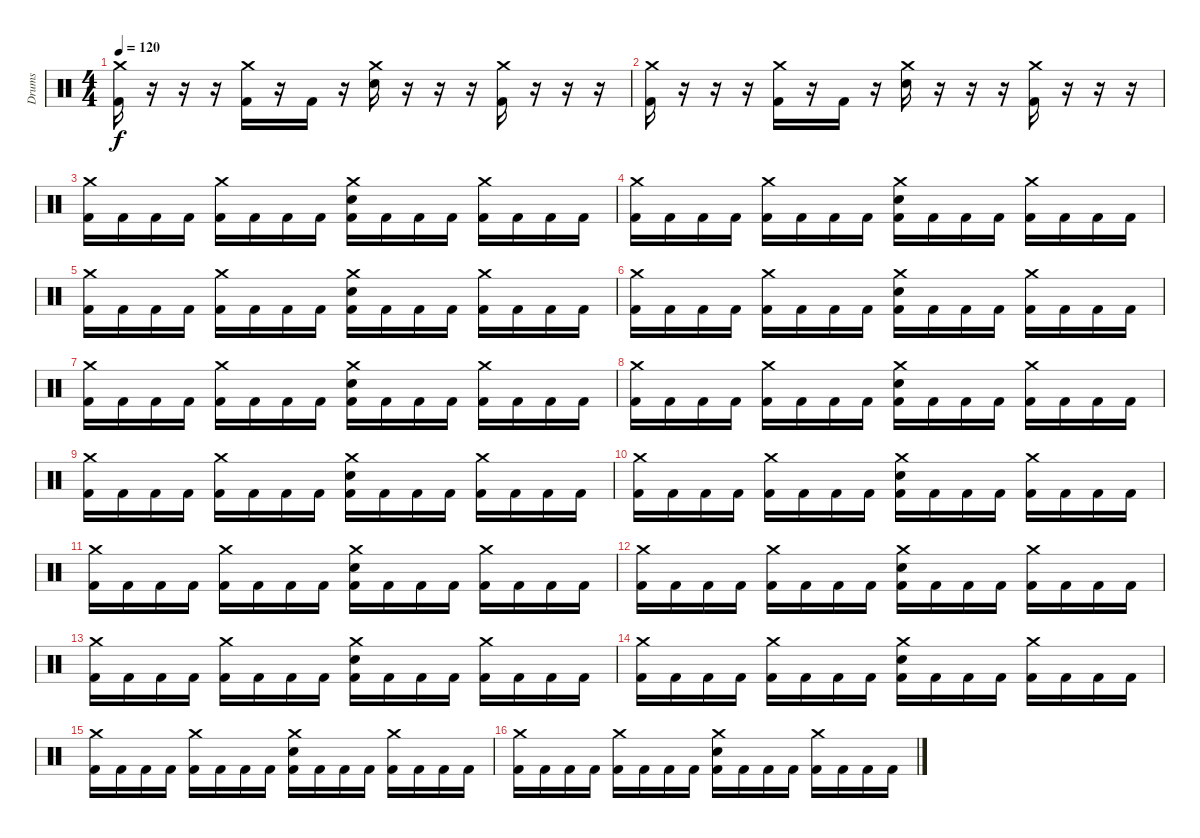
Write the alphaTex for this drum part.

\track ("Drums" "Drums") {instrument percussion}
\staff {score}
\articulation defaults
\ts (4 4)
\tempo 120
\clef neutral
\ks c
("Crash medium (hit)" "Kick (hit) 2").16{dy f} r.16 r.16 r.16 ("Crash medium (hit)" "Kick (hit) 2").16 r.16 "Kick (hit) 2".16 r.16 ("Crash medium (hit)" "Electric Snare (hit)").16 r.16 r.16 r.16 ("Crash medium (hit)" "Kick (hit) 2").16 r.16 r.16 r.16 |
("Crash medium (hit)" "Kick (hit) 2").16 r.16 r.16 r.16 ("Crash medium (hit)" "Kick (hit) 2").16 r.16 "Kick (hit) 2".16 r.16 ("Crash medium (hit)" "Electric Snare (hit)").16 r.16 r.16 r.16 ("Crash medium (hit)" "Kick (hit) 2").16 r.16 r.16 r.16 |
("Crash medium (hit)" "Kick (hit) 2").16 "Kick (hit) 2".16 "Kick (hit) 2".16 "Kick (hit) 2".16 ("Crash medium (hit)" "Kick (hit) 2").16 "Kick (hit) 2".16 "Kick (hit) 2".16 "Kick (hit) 2".16 ("Crash medium (hit)" "Electric Snare (hit)" "Kick (hit) 2").16 "Kick (hit) 2".16 "Kick (hit) 2".16 "Kick (hit) 2".16 ("Crash medium (hit)" "Kick (hit) 2").16 "Kick (hit) 2".16 "Kick (hit) 2".16 "Kick (hit) 2".16 |
("Crash medium (hit)" "Kick (hit) 2").16 "Kick (hit) 2".16 "Kick (hit) 2".16 "Kick (hit) 2".16 ("Crash medium (hit)" "Kick (hit) 2").16 "Kick (hit) 2".16 "Kick (hit) 2".16 "Kick (hit) 2".16 ("Crash medium (hit)" "Electric Snare (hit)" "Kick (hit) 2").16 "Kick (hit) 2".16 "Kick (hit) 2".16 "Kick (hit) 2".16 ("Crash medium (hit)" "Kick (hit) 2").16 "Kick (hit) 2".16 "Kick (hit) 2".16 "Kick (hit) 2".16 |
("Crash medium (hit)" "Kick (hit) 2").16 "Kick (hit) 2".16 "Kick (hit) 2".16 "Kick (hit) 2".16 ("Crash medium (hit)" "Kick (hit) 2").16 "Kick (hit) 2".16 "Kick (hit) 2".16 "Kick (hit) 2".16 ("Crash medium (hit)" "Electric Snare (hit)" "Kick (hit) 2").16 "Kick (hit) 2".16 "Kick (hit) 2".16 "Kick (hit) 2".16 ("Crash medium (hit)" "Kick (hit) 2").16 "Kick (hit) 2".16 "Kick (hit) 2".16 "Kick (hit) 2".16 |
("Crash medium (hit)" "Kick (hit) 2").16 "Kick (hit) 2".16 "Kick (hit) 2".16 "Kick (hit) 2".16 ("Crash medium (hit)" "Kick (hit) 2").16 "Kick (hit) 2".16 "Kick (hit) 2".16 "Kick (hit) 2".16 ("Crash medium (hit)" "Electric Snare (hit)" "Kick (hit) 2").16 "Kick (hit) 2".16 "Kick (hit) 2".16 "Kick (hit) 2".16 ("Crash medium (hit)" "Kick (hit) 2").16 "Kick (hit) 2".16 "Kick (hit) 2".16 "Kick (hit) 2".16 |
("Crash medium (hit)" "Kick (hit) 2").16 "Kick (hit) 2".16 "Kick (hit) 2".16 "Kick (hit) 2".16 ("Crash medium (hit)" "Kick (hit) 2").16 "Kick (hit) 2".16 "Kick (hit) 2".16 "Kick (hit) 2".16 ("Crash medium (hit)" "Electric Snare (hit)" "Kick (hit) 2").16 "Kick (hit) 2".16 "Kick (hit) 2".16 "Kick (hit) 2".16 ("Crash medium (hit)" "Kick (hit) 2").16 "Kick (hit) 2".16 "Kick (hit) 2".16 "Kick (hit) 2".16 |
("Crash medium (hit)" "Kick (hit) 2").16 "Kick (hit) 2".16 "Kick (hit) 2".16 "Kick (hit) 2".16 ("Crash medium (hit)" "Kick (hit) 2").16 "Kick (hit) 2".16 "Kick (hit) 2".16 "Kick (hit) 2".16 ("Crash medium (hit)" "Electric Snare (hit)" "Kick (hit) 2").16 "Kick (hit) 2".16 "Kick (hit) 2".16 "Kick (hit) 2".16 ("Crash medium (hit)" "Kick (hit) 2").16 "Kick (hit) 2".16 "Kick (hit) 2".16 "Kick (hit) 2".16 |
("Crash medium (hit)" "Kick (hit) 2").16 "Kick (hit) 2".16 "Kick (hit) 2".16 "Kick (hit) 2".16 ("Crash medium (hit)" "Kick (hit) 2").16 "Kick (hit) 2".16 "Kick (hit) 2".16 "Kick (hit) 2".16 ("Crash medium (hit)" "Electric Snare (hit)" "Kick (hit) 2").16 "Kick (hit) 2".16 "Kick (hit) 2".16 "Kick (hit) 2".16 ("Crash medium (hit)" "Kick (hit) 2").16 "Kick (hit) 2".16 "Kick (hit) 2".16 "Kick (hit) 2".16 |
("Crash medium (hit)" "Kick (hit) 2").16 "Kick (hit) 2".16 "Kick (hit) 2".16 "Kick (hit) 2".16 ("Crash medium (hit)" "Kick (hit) 2").16 "Kick (hit) 2".16 "Kick (hit) 2".16 "Kick (hit) 2".16 ("Crash medium (hit)" "Electric Snare (hit)" "Kick (hit) 2").16 "Kick (hit) 2".16 "Kick (hit) 2".16 "Kick (hit) 2".16 ("Crash medium (hit)" "Kick (hit) 2").16 "Kick (hit) 2".16 "Kick (hit) 2".16 "Kick (hit) 2".16 |
("Crash medium (hit)" "Kick (hit) 2").16 "Kick (hit) 2".16 "Kick (hit) 2".16 "Kick (hit) 2".16 ("Crash medium (hit)" "Kick (hit) 2").16 "Kick (hit) 2".16 "Kick (hit) 2".16 "Kick (hit) 2".16 ("Crash medium (hit)" "Electric Snare (hit)" "Kick (hit) 2").16 "Kick (hit) 2".16 "Kick (hit) 2".16 "Kick (hit) 2".16 ("Crash medium (hit)" "Kick (hit) 2").16 "Kick (hit) 2".16 "Kick (hit) 2".16 "Kick (hit) 2".16 |
("Crash medium (hit)" "Kick (hit) 2").16 "Kick (hit) 2".16 "Kick (hit) 2".16 "Kick (hit) 2".16 ("Crash medium (hit)" "Kick (hit) 2").16 "Kick (hit) 2".16 "Kick (hit) 2".16 "Kick (hit) 2".16 ("Crash medium (hit)" "Electric Snare (hit)" "Kick (hit) 2").16 "Kick (hit) 2".16 "Kick (hit) 2".16 "Kick (hit) 2".16 ("Crash medium (hit)" "Kick (hit) 2").16 "Kick (hit) 2".16 "Kick (hit) 2".16 "Kick (hit) 2".16 |
("Crash medium (hit)" "Kick (hit) 2").16 "Kick (hit) 2".16 "Kick (hit) 2".16 "Kick (hit) 2".16 ("Crash medium (hit)" "Kick (hit) 2").16 "Kick (hit) 2".16 "Kick (hit) 2".16 "Kick (hit) 2".16 ("Crash medium (hit)" "Electric Snare (hit)" "Kick (hit) 2").16 "Kick (hit) 2".16 "Kick (hit) 2".16 "Kick (hit) 2".16 ("Crash medium (hit)" "Kick (hit) 2").16 "Kick (hit) 2".16 "Kick (hit) 2".16 "Kick (hit) 2".16 |
("Crash medium (hit)" "Kick (hit) 2").16 "Kick (hit) 2".16 "Kick (hit) 2".16 "Kick (hit) 2".16 ("Crash medium (hit)" "Kick (hit) 2").16 "Kick (hit) 2".16 "Kick (hit) 2".16 "Kick (hit) 2".16 ("Crash medium (hit)" "Electric Snare (hit)" "Kick (hit) 2").16 "Kick (hit) 2".16 "Kick (hit) 2".16 "Kick (hit) 2".16 ("Crash medium (hit)" "Kick (hit) 2").16 "Kick (hit) 2".16 "Kick (hit) 2".16 "Kick (hit) 2".16 |
("Crash medium (hit)" "Kick (hit) 2").16 "Kick (hit) 2".16 "Kick (hit) 2".16 "Kick (hit) 2".16 ("Crash medium (hit)" "Kick (hit) 2").16 "Kick (hit) 2".16 "Kick (hit) 2".16 "Kick (hit) 2".16 ("Crash medium (hit)" "Electric Snare (hit)" "Kick (hit) 2").16 "Kick (hit) 2".16 "Kick (hit) 2".16 "Kick (hit) 2".16 ("Crash medium (hit)" "Kick (hit) 2").16 "Kick (hit) 2".16 "Kick (hit) 2".16 "Kick (hit) 2".16 |
("Crash medium (hit)" "Kick (hit) 2").16 "Kick (hit) 2".16 "Kick (hit) 2".16 "Kick (hit) 2".16 ("Crash medium (hit)" "Kick (hit) 2").16 "Kick (hit) 2".16 "Kick (hit) 2".16 "Kick (hit) 2".16 ("Crash medium (hit)" "Electric Snare (hit)" "Kick (hit) 2").16 "Kick (hit) 2".16 "Kick (hit) 2".16 "Kick (hit) 2".16 ("Crash medium (hit)" "Kick (hit) 2").16 "Kick (hit) 2".16 "Kick (hit) 2".16 "Kick (hit) 2".16
